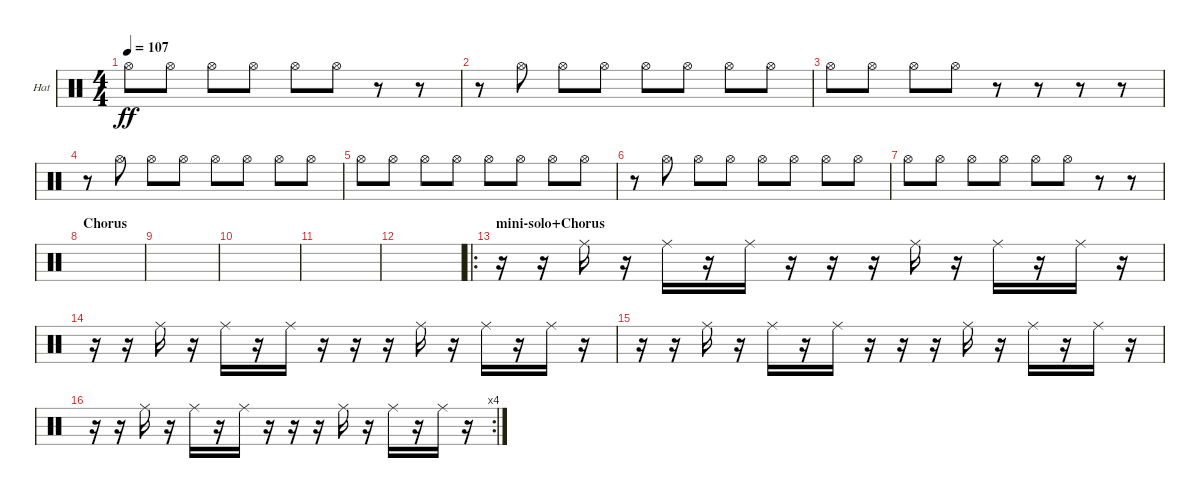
\bracketExtendMode groupsimilarinstruments
\firstSystemTrackNameOrientation horizontal
\otherSystemsTrackNameOrientation horizontal
\track ("Hat" "Hat") {instrument percussion}
\staff {score}
\articulation defaults
\ts (4 4)
\tempo 107
\clef neutral
\ks c "Hi-Hat (open)".8{dy ff} "Hi-Hat (open)".8 "Hi-Hat (open)".8 "Hi-Hat (open)".8 "Hi-Hat (open)".8 "Hi-Hat (open)".8
r.8 r.8 |
r.8 "Hi-Hat (open)".8 "Hi-Hat (open)".8 "Hi-Hat (open)".8 "Hi-Hat (open)".8 "Hi-Hat (open)".8 "Hi-Hat (open)".8 "Hi-Hat (open)".8 |
"Hi-Hat (open)".8 "Hi-Hat (open)".8 "Hi-Hat (open)".8 "Hi-Hat (open)".8 r.8 r.8 r.8 r.8 |
r.8 "Hi-Hat (open)".8 "Hi-Hat (open)".8 "Hi-Hat (open)".8 "Hi-Hat (open)".8 "Hi-Hat (open)".8 "Hi-Hat (open)".8 "Hi-Hat (open)".8 |
"Hi-Hat (open)".8 "Hi-Hat (open)".8 "Hi-Hat (open)".8 "Hi-Hat (open)".8 "Hi-Hat (open)".8 "Hi-Hat (open)".8 "Hi-Hat (open)".8 "Hi-Hat (open)".8 |
r.8 "Hi-Hat (open)".8 "Hi-Hat (open)".8 "Hi-Hat (open)".8 "Hi-Hat (open)".8 "Hi-Hat (open)".8 "Hi-Hat (open)".8 "Hi-Hat (open)".8 |
"Hi-Hat (open)".8 "Hi-Hat (open)".8 "Hi-Hat (open)".8 "Hi-Hat (open)".8 "Hi-Hat (open)".8 "Hi-Hat (open)".8 r.8 r.8 |
\section ("" "Chorus")
|
|
|
|
|
\ro
\section ("" "mini-solo+Chorus")
r.16 r.16 "Ride (middle)".16 r.16 "Ride (middle)".16 r.16 "Ride (middle)".16 r.16 r.16 r.16 "Ride (middle)".16 r.16 "Ride (middle)".16 r.16 "Ride (middle)".16 r.16 |
r.16 r.16 "Ride (middle)".16 r.16 "Ride (middle)".16 r.16 "Ride (middle)".16 r.16 r.16 r.16 "Ride (middle)".16 r.16 "Ride (middle)".16 r.16 "Ride (middle)".16 r.16 |
r.16 r.16 "Ride (middle)".16 r.16 "Ride (middle)".16 r.16 "Ride (middle)".16 r.16 r.16 r.16 "Ride (middle)".16 r.16 "Ride (middle)".16 r.16 "Ride (middle)".16 r.16 |
\rc 4
r.16 r.16 "Ride (middle)".16 r.16 "Ride (middle)".16 r.16 "Ride (middle)".16 r.16 r.16 r.16 "Ride (middle)".16 r.16 "Ride (middle)".16 r.16 "Ride (middle)".16 r.16
